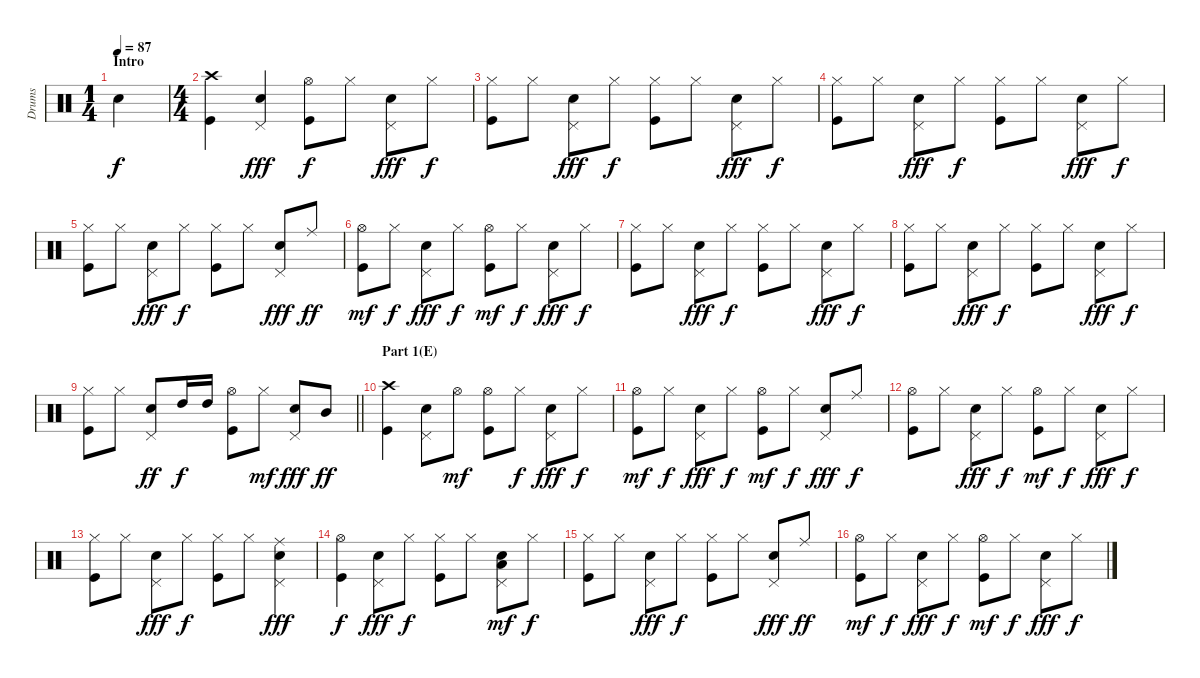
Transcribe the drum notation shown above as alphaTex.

\track ("Drums" "Drums") {instrument percussion}
\staff {score}
\articulation defaults
\ts (1 4)
\section ("" "Intro")
\tempo 87
\clef neutral
\ks c "Snare (hit) 2".4{dy f}
|
\ts (4 4)
("Crash high (hit)" "Kick (hit)").4 ("Pedal Hi-Hat (hit)" "Snare (hit) 2").4{dy fff} ("Hi-Hat (open)" "Kick (hit)").8{dy f} "Hi-Hat (closed)".8 ("Pedal Hi-Hat (hit)" "Snare (hit) 2").8{dy fff} "Hi-Hat (closed)".8{dy f} |
("Hi-Hat (closed)" "Kick (hit)").8 "Hi-Hat (closed)".8 ("Pedal Hi-Hat (hit)" "Snare (hit) 2").8{dy fff} "Hi-Hat (closed)".8{dy f} ("Hi-Hat (closed)" "Kick (hit)").8 "Hi-Hat (closed)".8 ("Pedal Hi-Hat (hit)" "Snare (hit) 2").8{dy fff} "Hi-Hat (closed)".8{dy f} |
("Hi-Hat (closed)" "Kick (hit)").8 "Hi-Hat (closed)".8 ("Pedal Hi-Hat (hit)" "Snare (hit) 2").8{dy fff} "Hi-Hat (closed)".8{dy f} ("Hi-Hat (closed)" "Kick (hit)").8 "Hi-Hat (closed)".8 ("Pedal Hi-Hat (hit)" "Snare (hit) 2").8{dy fff} "Hi-Hat (closed)".8{dy f} |
("Hi-Hat (closed)" "Kick (hit)").8 "Hi-Hat (closed)".8 ("Pedal Hi-Hat (hit)" "Snare (hit) 2").8{dy fff} "Hi-Hat (closed)".8{dy f} ("Hi-Hat (closed)" "Kick (hit)").8 "Hi-Hat (closed)".8 ("Pedal Hi-Hat (hit)" "Snare (hit) 2").8{dy fff} "Ride (middle)".8{dy ff} |
("Hi-Hat (open)" "Kick (hit)").8{dy mf} "Hi-Hat (closed)".8{dy f} ("Pedal Hi-Hat (hit)" "Snare (hit) 2").8{dy fff} "Hi-Hat (closed)".8{dy f} ("Hi-Hat (open)" "Kick (hit)").8{dy mf} "Hi-Hat (closed)".8{dy f} ("Pedal Hi-Hat (hit)" "Snare (hit) 2").8{dy fff} "Hi-Hat (closed)".8{dy f} |
("Hi-Hat (closed)" "Kick (hit)").8 "Hi-Hat (closed)".8 ("Pedal Hi-Hat (hit)" "Snare (hit) 2").8{dy fff} "Hi-Hat (closed)".8{dy f} ("Hi-Hat (closed)" "Kick (hit)").8 "Hi-Hat (closed)".8 ("Pedal Hi-Hat (hit)" "Snare (hit) 2").8{dy fff} "Hi-Hat (closed)".8{dy f} |
("Hi-Hat (closed)" "Kick (hit)").8 "Hi-Hat (closed)".8 ("Pedal Hi-Hat (hit)" "Snare (hit) 2").8{dy fff} "Hi-Hat (closed)".8{dy f} ("Hi-Hat (closed)" "Kick (hit)").8 "Hi-Hat (closed)".8 ("Pedal Hi-Hat (hit)" "Snare (hit) 2").8{dy fff} "Hi-Hat (closed)".8{dy f} |
\barLineRight lightlight
("Hi-Hat (closed)" "Kick (hit)").8 "Hi-Hat (closed)".8 ("Pedal Hi-Hat (hit)" "Snare (hit) 2").8{dy ff} "High Tom (hit)".16{dy f} "High Tom (hit)".16 ("Hi-Hat (open)" "Kick (hit)").8 "Hi-Hat (closed)".8{dy mf} ("Pedal Hi-Hat (hit)" "Snare (hit) 2").8{dy fff} "Mid Tom (hit)".8{dy ff} |
\section ("" "Part 1(E)")
("Crash high (hit)" "Kick (hit)").4 ("Pedal Hi-Hat (hit)" "Snare (hit) 2").8 "Hi-Hat (open)".8{dy mf} ("Hi-Hat (open)" "Kick (hit)").8 "Hi-Hat (closed)".8{dy f} ("Pedal Hi-Hat (hit)" "Snare (hit) 2").8{dy fff} "Hi-Hat (closed)".8{dy f} |
("Hi-Hat (open)" "Kick (hit)").8{dy mf} "Hi-Hat (closed)".8{dy f} ("Pedal Hi-Hat (hit)" "Snare (hit) 2").8{dy fff} "Hi-Hat (closed)".8{dy f} ("Hi-Hat (open)" "Kick (hit)").8{dy mf} "Hi-Hat (closed)".8{dy f} ("Pedal Hi-Hat (hit)" "Snare (hit) 2").8{dy fff} "Ride (middle)".8{dy f} |
("Hi-Hat (open)" "Kick (hit)").8 "Hi-Hat (closed)".8 ("Pedal Hi-Hat (hit)" "Snare (hit) 2").8{dy fff} "Hi-Hat (closed)".8{dy f} ("Hi-Hat (open)" "Kick (hit)").8{dy mf} "Hi-Hat (closed)".8{dy f} ("Pedal Hi-Hat (hit)" "Snare (hit) 2").8{dy fff} "Hi-Hat (closed)".8{dy f} |
("Hi-Hat (closed)" "Kick (hit)").8 "Hi-Hat (closed)".8 ("Pedal Hi-Hat (hit)" "Snare (hit) 2").8{dy fff} "Hi-Hat (closed)".8{dy f} ("Hi-Hat (closed)" "Kick (hit)").8 "Hi-Hat (closed)".8 ("Ride (middle)" "Pedal Hi-Hat (hit)" "Snare (hit) 2").4{dy fff} |
("Hi-Hat (open)" "Kick (hit)").4{dy f} ("Pedal Hi-Hat (hit)" "Snare (hit) 2").8{dy fff} "Hi-Hat (closed)".8{dy f} ("Hi-Hat (closed)" "Kick (hit)").8 "Hi-Hat (closed)".8 ("Pedal Hi-Hat (hit)" "Snare (hit) 2" "Low Tom (hit)").8{dy mf} "Hi-Hat (closed)".8{dy f} |
("Hi-Hat (closed)" "Kick (hit)").8 "Hi-Hat (closed)".8 ("Pedal Hi-Hat (hit)" "Snare (hit) 2").8{dy fff} "Hi-Hat (closed)".8{dy f} ("Hi-Hat (closed)" "Kick (hit)").8 "Hi-Hat (closed)".8 ("Pedal Hi-Hat (hit)" "Snare (hit) 2").8{dy fff} "Ride (middle)".8{dy ff} |
("Hi-Hat (open)" "Kick (hit)").8{dy mf} "Hi-Hat (closed)".8{dy f} ("Pedal Hi-Hat (hit)" "Snare (hit) 2").8{dy fff} "Hi-Hat (closed)".8{dy f} ("Hi-Hat (open)" "Kick (hit)").8{dy mf} "Hi-Hat (closed)".8{dy f} ("Pedal Hi-Hat (hit)" "Snare (hit) 2").8{dy fff} "Hi-Hat (closed)".8{dy f}
